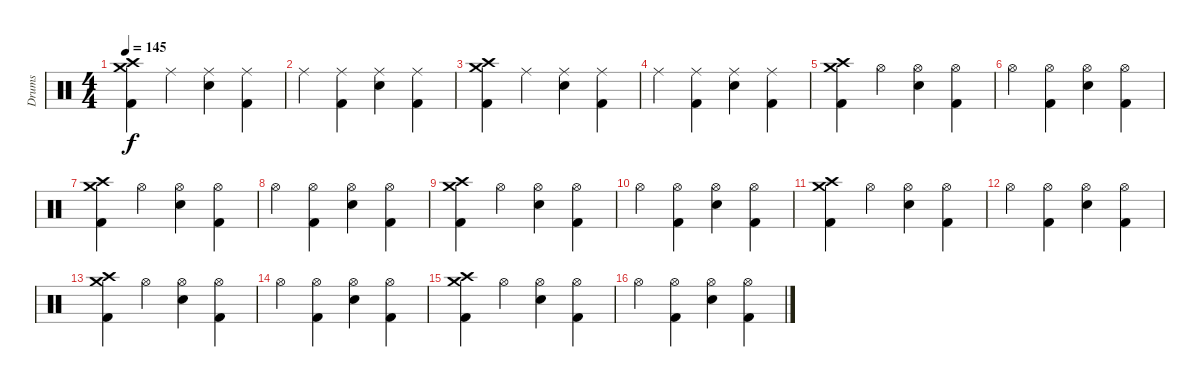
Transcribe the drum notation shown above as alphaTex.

\track ("Drums" "Drums") {instrument percussion}
\staff {score}
\articulation defaults
\ts (4 4)
\tempo 145
\clef neutral
\ks c
("Crash medium (hit)" "Crash high (hit)" "Kick (hit) 2").4{dy f} "Ride (middle)".4 ("Ride (middle)" "Snare (hit) 2").4 ("Ride (middle)" "Kick (hit) 2").4 |
"Ride (middle)".4 ("Ride (middle)" "Kick (hit) 2").4 ("Ride (middle)" "Snare (hit) 2").4 ("Ride (middle)" "Kick (hit) 2").4 |
("Crash medium (hit)" "Crash high (hit)" "Kick (hit) 2").4 "Ride (middle)".4 ("Ride (middle)" "Snare (hit) 2").4 ("Ride (middle)" "Kick (hit) 2").4 |
"Ride (middle)".4 ("Ride (middle)" "Kick (hit) 2").4 ("Ride (middle)" "Snare (hit) 2").4 ("Ride (middle)" "Kick (hit) 2").4 |
("Crash medium (hit)" "Crash high (hit)" "Kick (hit) 2").4 "Hi-Hat (open)".4 ("Hi-Hat (open)" "Snare (hit) 2").4 ("Hi-Hat (open)" "Kick (hit) 2").4 |
"Hi-Hat (open)".4 ("Hi-Hat (open)" "Kick (hit) 2").4 ("Hi-Hat (open)" "Snare (hit) 2").4 ("Hi-Hat (open)" "Kick (hit) 2").4 |
("Crash medium (hit)" "Crash high (hit)" "Kick (hit) 2").4 "Hi-Hat (open)".4 ("Hi-Hat (open)" "Snare (hit) 2").4 ("Hi-Hat (open)" "Kick (hit) 2").4 |
"Hi-Hat (open)".4 ("Hi-Hat (open)" "Kick (hit) 2").4 ("Hi-Hat (open)" "Snare (hit) 2").4 ("Hi-Hat (open)" "Kick (hit) 2").4 |
("Crash medium (hit)" "Crash high (hit)" "Kick (hit) 2").4 "Hi-Hat (open)".4 ("Hi-Hat (open)" "Snare (hit) 2").4 ("Hi-Hat (open)" "Kick (hit) 2").4 |
"Hi-Hat (open)".4 ("Hi-Hat (open)" "Kick (hit) 2").4 ("Hi-Hat (open)" "Snare (hit) 2").4 ("Hi-Hat (open)" "Kick (hit) 2").4 |
("Crash medium (hit)" "Crash high (hit)" "Kick (hit) 2").4 "Hi-Hat (open)".4 ("Hi-Hat (open)" "Snare (hit) 2").4 ("Hi-Hat (open)" "Kick (hit) 2").4 |
"Hi-Hat (open)".4 ("Hi-Hat (open)" "Kick (hit) 2").4 ("Hi-Hat (open)" "Snare (hit) 2").4 ("Hi-Hat (open)" "Kick (hit) 2").4 |
("Crash medium (hit)" "Crash high (hit)" "Kick (hit) 2").4 "Hi-Hat (open)".4 ("Hi-Hat (open)" "Snare (hit) 2").4 ("Hi-Hat (open)" "Kick (hit) 2").4 |
"Hi-Hat (open)".4 ("Hi-Hat (open)" "Kick (hit) 2").4 ("Hi-Hat (open)" "Snare (hit) 2").4 ("Hi-Hat (open)" "Kick (hit) 2").4 |
("Crash medium (hit)" "Crash high (hit)" "Kick (hit) 2").4 "Hi-Hat (open)".4 ("Hi-Hat (open)" "Snare (hit) 2").4 ("Hi-Hat (open)" "Kick (hit) 2").4 |
"Hi-Hat (open)".4 ("Hi-Hat (open)" "Kick (hit) 2").4 ("Hi-Hat (open)" "Snare (hit) 2").4 ("Hi-Hat (open)" "Kick (hit) 2").4
